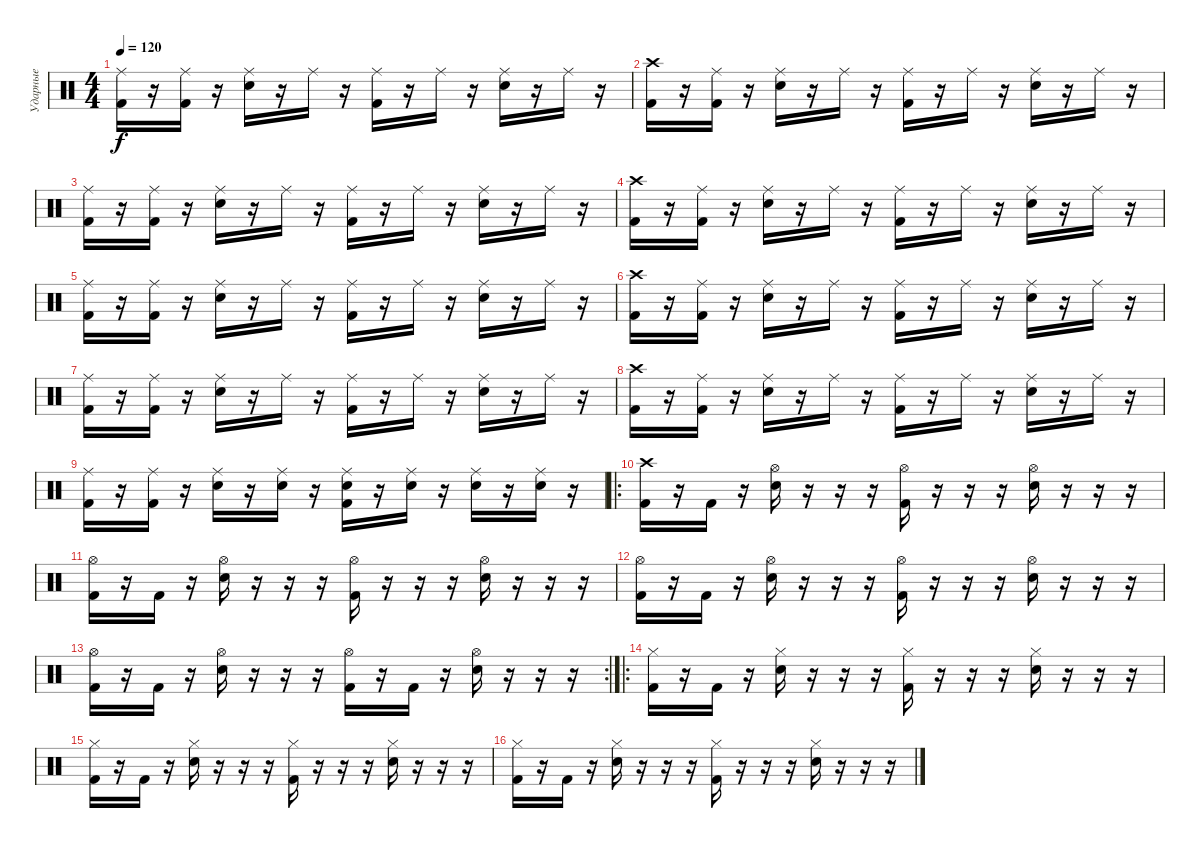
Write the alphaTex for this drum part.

\track ("Ударные" "Ударные") {instrument percussion}
\staff {score}
\articulation defaults
\ts (4 4)
\tempo 120
\clef neutral
\ks c
("Kick (hit) 2" "Ride (middle)").16{dy f} r.16 ("Kick (hit) 2" "Ride (middle)").16 r.16 ("Snare (hit) 2" "Ride (middle)").16 r.16 "Ride (middle)".16 r.16 ("Kick (hit) 2" "Ride (middle)").16 r.16 "Ride (middle)".16 r.16 ("Snare (hit) 2" "Ride (middle)").16 r.16 "Ride (middle)".16 r.16 |
("Kick (hit) 2" "Crash high (hit)").16 r.16 ("Kick (hit) 2" "Ride (middle)").16 r.16 ("Snare (hit) 2" "Ride (middle)").16 r.16 "Ride (middle)".16 r.16 ("Kick (hit) 2" "Ride (middle)").16 r.16 "Ride (middle)".16 r.16 ("Snare (hit) 2" "Ride (middle)").16 r.16 "Ride (middle)".16 r.16 |
("Kick (hit) 2" "Ride (middle)").16 r.16 ("Kick (hit) 2" "Ride (middle)").16 r.16 ("Snare (hit) 2" "Ride (middle)").16 r.16 "Ride (middle)".16 r.16 ("Kick (hit) 2" "Ride (middle)").16 r.16 "Ride (middle)".16 r.16 ("Snare (hit) 2" "Ride (middle)").16 r.16 "Ride (middle)".16 r.16 |
("Kick (hit) 2" "Crash high (hit)").16 r.16 ("Kick (hit) 2" "Ride (middle)").16 r.16 ("Snare (hit) 2" "Ride (middle)").16 r.16 "Ride (middle)".16 r.16 ("Kick (hit) 2" "Ride (middle)").16 r.16 "Ride (middle)".16 r.16 ("Snare (hit) 2" "Ride (middle)").16 r.16 "Ride (middle)".16 r.16 |
("Kick (hit) 2" "Ride (middle)").16 r.16 ("Kick (hit) 2" "Ride (middle)").16 r.16 ("Snare (hit) 2" "Ride (middle)").16 r.16 "Ride (middle)".16 r.16 ("Kick (hit) 2" "Ride (middle)").16 r.16 "Ride (middle)".16 r.16 ("Snare (hit) 2" "Ride (middle)").16 r.16 "Ride (middle)".16 r.16 |
("Kick (hit) 2" "Crash high (hit)").16 r.16 ("Kick (hit) 2" "Ride (middle)").16 r.16 ("Snare (hit) 2" "Ride (middle)").16 r.16 "Ride (middle)".16 r.16 ("Kick (hit) 2" "Ride (middle)").16 r.16 "Ride (middle)".16 r.16 ("Snare (hit) 2" "Ride (middle)").16 r.16 "Ride (middle)".16 r.16 |
("Kick (hit) 2" "Ride (middle)").16 r.16 ("Kick (hit) 2" "Ride (middle)").16 r.16 ("Snare (hit) 2" "Ride (middle)").16 r.16 "Ride (middle)".16 r.16 ("Kick (hit) 2" "Ride (middle)").16 r.16 "Ride (middle)".16 r.16 ("Snare (hit) 2" "Ride (middle)").16 r.16 "Ride (middle)".16 r.16 |
("Kick (hit) 2" "Crash high (hit)").16 r.16 ("Kick (hit) 2" "Ride (middle)").16 r.16 ("Snare (hit) 2" "Ride (middle)").16 r.16 "Ride (middle)".16 r.16 ("Kick (hit) 2" "Ride (middle)").16 r.16 "Ride (middle)".16 r.16 ("Snare (hit) 2" "Ride (middle)").16 r.16 "Ride (middle)".16 r.16 |
("Kick (hit) 2" "Ride (middle)").16 r.16 ("Kick (hit) 2" "Ride (middle)").16 r.16 ("Snare (hit) 2" "Ride (middle)").16 r.16 ("Snare (hit) 2" "Ride (middle)").16 r.16 ("Snare (hit) 2" "Kick (hit) 2" "Ride (middle)").16 r.16 ("Snare (hit) 2" "Ride (middle)").16 r.16 ("Snare (hit) 2" "Ride (middle)").16 r.16 ("Snare (hit) 2" "Ride (middle)").16 r.16 |
\ro
("Kick (hit) 2" "Crash high (hit)").16 r.16 "Kick (hit) 2".16 r.16 ("Snare (hit) 2" "Hi-Hat (open)").16 r.16 r.16 r.16 ("Kick (hit) 2" "Hi-Hat (open)").16 r.16 r.16 r.16 ("Snare (hit) 2" "Hi-Hat (open)").16 r.16 r.16 r.16 |
("Kick (hit) 2" "Hi-Hat (open)").16 r.16 "Kick (hit) 2".16 r.16 ("Snare (hit) 2" "Hi-Hat (open)").16 r.16 r.16 r.16 ("Kick (hit) 2" "Hi-Hat (open)").16 r.16 r.16 r.16 ("Snare (hit) 2" "Hi-Hat (open)").16 r.16 r.16 r.16 |
("Kick (hit) 2" "Hi-Hat (open)").16 r.16 "Kick (hit) 2".16 r.16 ("Snare (hit) 2" "Hi-Hat (open)").16 r.16 r.16 r.16 ("Kick (hit) 2" "Hi-Hat (open)").16 r.16 r.16 r.16 ("Snare (hit) 2" "Hi-Hat (open)").16 r.16 r.16 r.16 |
\rc 2
("Kick (hit) 2" "Hi-Hat (open)").16 r.16 "Kick (hit) 2".16 r.16 ("Snare (hit) 2" "Hi-Hat (open)").16 r.16 r.16 r.16 ("Kick (hit) 2" "Hi-Hat (open)").16 r.16 "Kick (hit) 2".16 r.16 ("Snare (hit) 2" "Hi-Hat (open)").16 r.16 r.16 r.16 |
\ro
("Kick (hit) 2" "Hi-Hat (closed)").16 r.16 "Kick (hit) 2".16 r.16 ("Snare (hit) 2" "Hi-Hat (closed)").16 r.16 r.16 r.16 ("Kick (hit) 2" "Hi-Hat (closed)").16 r.16 r.16 r.16 ("Snare (hit) 2" "Hi-Hat (closed)").16 r.16 r.16 r.16 |
("Kick (hit) 2" "Hi-Hat (closed)").16 r.16 "Kick (hit) 2".16 r.16 ("Snare (hit) 2" "Hi-Hat (closed)").16 r.16 r.16 r.16 ("Kick (hit) 2" "Hi-Hat (closed)").16 r.16 r.16 r.16 ("Snare (hit) 2" "Hi-Hat (closed)").16 r.16 r.16 r.16 |
("Kick (hit) 2" "Hi-Hat (closed)").16 r.16 "Kick (hit) 2".16 r.16 ("Snare (hit) 2" "Hi-Hat (closed)").16 r.16 r.16 r.16 ("Kick (hit) 2" "Hi-Hat (closed)").16 r.16 r.16 r.16 ("Snare (hit) 2" "Hi-Hat (closed)").16 r.16 r.16 r.16
